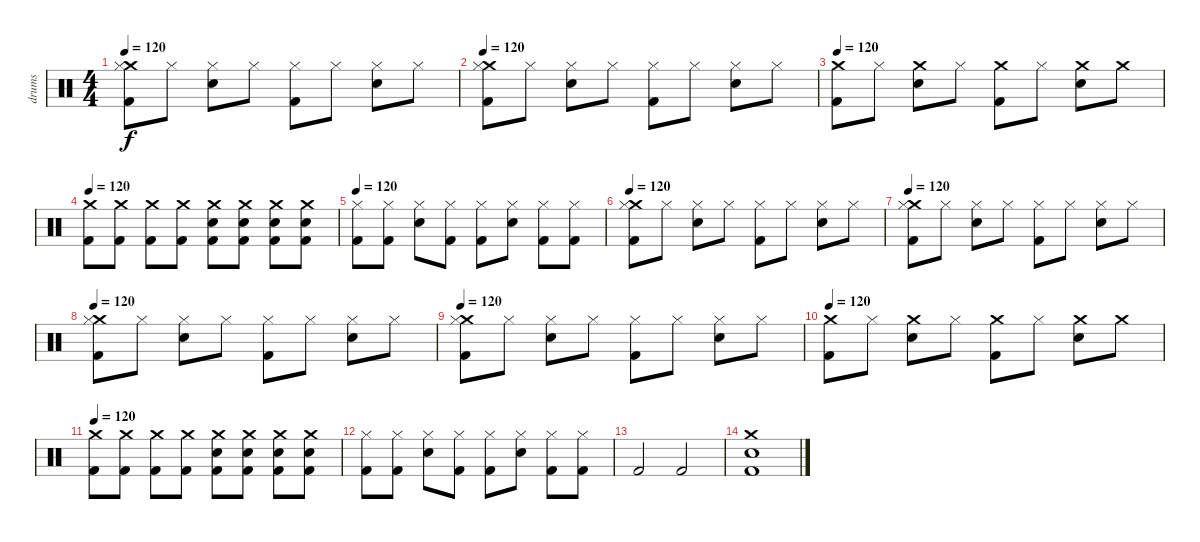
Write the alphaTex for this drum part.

\track ("drums" "drums") {instrument percussion}
\staff {score}
\articulation defaults
\ts (4 4)
\tempo 120
\clef neutral
\ks c
("Crash medium (hit)" "Hi-Hat (closed)" "Kick (hit) 2").8{dy f} "Hi-Hat (closed)".8 ("Hi-Hat (closed)" "Snare (hit) 2").8 "Hi-Hat (closed)".8 ("Hi-Hat (closed)" "Kick (hit) 2").8 "Hi-Hat (closed)".8 ("Hi-Hat (closed)" "Snare (hit) 2").8 "Hi-Hat (closed)".8 |
\tempo 120
("Crash medium (hit)" "Hi-Hat (closed)" "Kick (hit) 2").8 "Hi-Hat (closed)".8 ("Hi-Hat (closed)" "Snare (hit) 2").8 "Hi-Hat (closed)".8 ("Hi-Hat (closed)" "Kick (hit) 2").8 "Hi-Hat (closed)".8 ("Hi-Hat (closed)" "Snare (hit) 2").8 "Hi-Hat (closed)".8 |
\tempo 120
("Crash medium (hit)" "Kick (hit) 2").8 "Hi-Hat (closed)".8 ("Crash medium (hit)" "Snare (hit) 2").8 "Hi-Hat (closed)".8 ("Crash medium (hit)" "Kick (hit) 2").8 "Hi-Hat (closed)".8 ("Crash medium (hit)" "Snare (hit) 2").8 "Crash medium (hit)".8 |
\tempo 120
("Crash medium (hit)" "Kick (hit) 2").8 ("Crash medium (hit)" "Kick (hit) 2").8 ("Crash medium (hit)" "Kick (hit) 2").8 ("Crash medium (hit)" "Kick (hit) 2").8 ("Crash medium (hit)" "Snare (hit) 2" "Kick (hit) 2").8 ("Crash medium (hit)" "Snare (hit) 2" "Kick (hit) 2").8 ("Crash medium (hit)" "Snare (hit) 2" "Kick (hit) 2").8 ("Crash medium (hit)" "Snare (hit) 2" "Kick (hit) 2").8 |
\tempo 120
("Hi-Hat (closed)" "Kick (hit) 2").8 ("Hi-Hat (closed)" "Kick (hit) 2").8 ("Hi-Hat (closed)" "Snare (hit) 2").8 ("Hi-Hat (closed)" "Kick (hit) 2").8 ("Hi-Hat (closed)" "Kick (hit) 2").8 ("Hi-Hat (closed)" "Snare (hit) 2").8 ("Hi-Hat (closed)" "Kick (hit) 2").8 ("Hi-Hat (closed)" "Kick (hit) 2").8 |
\tempo 120
("Crash medium (hit)" "Hi-Hat (closed)" "Kick (hit) 2").8 "Hi-Hat (closed)".8 ("Hi-Hat (closed)" "Snare (hit) 2").8 "Hi-Hat (closed)".8 ("Hi-Hat (closed)" "Kick (hit) 2").8 "Hi-Hat (closed)".8 ("Hi-Hat (closed)" "Snare (hit) 2").8 "Hi-Hat (closed)".8 |
\tempo 200
\tempo 120
("Crash medium (hit)" "Hi-Hat (closed)" "Kick (hit) 2").8 "Hi-Hat (closed)".8 ("Hi-Hat (closed)" "Snare (hit) 2").8 "Hi-Hat (closed)".8 ("Hi-Hat (closed)" "Kick (hit) 2").8 "Hi-Hat (closed)".8 ("Hi-Hat (closed)" "Snare (hit) 2").8 "Hi-Hat (closed)".8 |
\tempo 120
("Crash medium (hit)" "Hi-Hat (closed)" "Kick (hit) 2").8 "Hi-Hat (closed)".8 ("Hi-Hat (closed)" "Snare (hit) 2").8 "Hi-Hat (closed)".8 ("Hi-Hat (closed)" "Kick (hit) 2").8 "Hi-Hat (closed)".8 ("Hi-Hat (closed)" "Snare (hit) 2").8 "Hi-Hat (closed)".8 |
\tempo 120
("Crash medium (hit)" "Hi-Hat (closed)" "Kick (hit) 2").8 "Hi-Hat (closed)".8 ("Hi-Hat (closed)" "Snare (hit) 2").8 "Hi-Hat (closed)".8 ("Hi-Hat (closed)" "Kick (hit) 2").8 "Hi-Hat (closed)".8 ("Hi-Hat (closed)" "Snare (hit) 2").8 "Hi-Hat (closed)".8 |
\tempo 120
("Crash medium (hit)" "Kick (hit) 2").8 "Hi-Hat (closed)".8 ("Crash medium (hit)" "Snare (hit) 2").8 "Hi-Hat (closed)".8 ("Crash medium (hit)" "Kick (hit) 2").8 "Hi-Hat (closed)".8 ("Crash medium (hit)" "Snare (hit) 2").8 "Crash medium (hit)".8 |
\tempo 120
("Crash medium (hit)" "Kick (hit) 2").8 ("Crash medium (hit)" "Kick (hit) 2").8 ("Crash medium (hit)" "Kick (hit) 2").8 ("Crash medium (hit)" "Kick (hit) 2").8 ("Crash medium (hit)" "Snare (hit) 2" "Kick (hit) 2").8 ("Crash medium (hit)" "Snare (hit) 2" "Kick (hit) 2").8 ("Crash medium (hit)" "Snare (hit) 2" "Kick (hit) 2").8 ("Crash medium (hit)" "Snare (hit) 2" "Kick (hit) 2").8 |
("Hi-Hat (closed)" "Kick (hit) 2").8 ("Hi-Hat (closed)" "Kick (hit) 2").8 ("Hi-Hat (closed)" "Snare (hit) 2").8 ("Hi-Hat (closed)" "Kick (hit) 2").8 ("Hi-Hat (closed)" "Kick (hit) 2").8 ("Hi-Hat (closed)" "Snare (hit) 2").8 ("Hi-Hat (closed)" "Kick (hit) 2").8 ("Hi-Hat (closed)" "Kick (hit) 2").8 |
"Kick (hit) 2".2 "Kick (hit) 2".2 |
("Crash medium (hit)" "Snare (hit) 2" "Kick (hit) 2").1
